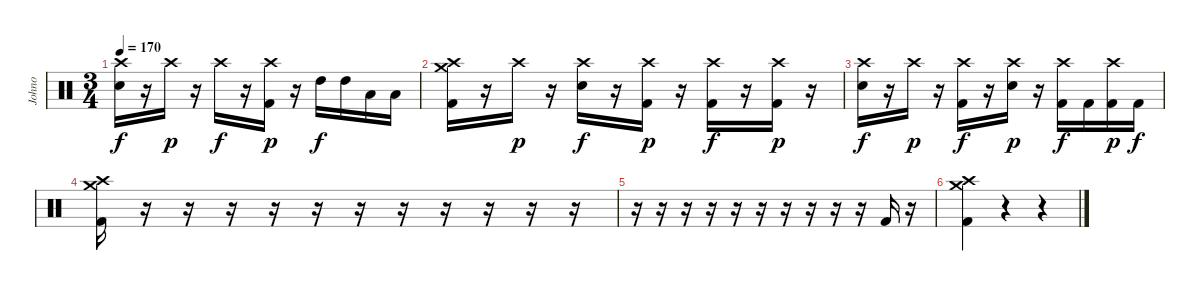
\track ("Johno" "Johno") {instrument percussion}
\staff {score}
\articulation defaults
\ts (3 4)
\tempo 170
\clef neutral
\ks c
("Crash high (hit)" "Electric Snare (hit)").16{dy f} r.16 "Crash high (hit)".16{dy p} r.16 "Crash high (hit)".16{dy f} r.16 ("Crash high (hit)" "Kick (hit) 2").16{dy p} r.16 "High Tom (hit)".16{dy f} "High Tom (hit)".16 "Low Floor Tom (hit)".16 "Low Floor Tom (hit)".16 |
("Crash medium (hit)" "Crash high (hit)" "Kick (hit) 2").16 r.16 "Crash high (hit)".16{dy p} r.16 ("Crash high (hit)" "Electric Snare (hit)").16{dy f} r.16 ("Crash high (hit)" "Kick (hit) 2").16{dy p} r.16 ("Crash high (hit)" "Kick (hit) 2").16{dy f} r.16 ("Crash high (hit)" "Kick (hit) 2").16{dy p} r.16 |
("Crash high (hit)" "Electric Snare (hit)").16{dy f} r.16 "Crash high (hit)".16{dy p} r.16 ("Crash high (hit)" "Kick (hit) 2").16{dy f} r.16 ("Crash high (hit)" "Electric Snare (hit)").16{dy p} r.16 ("Crash high (hit)" "Kick (hit) 2").16{dy f} "Kick (hit) 2".16 ("Crash high (hit)" "Kick (hit) 2").16{dy p} "Kick (hit) 2".16{dy f} |
("Crash medium (hit)" "Crash high (hit)" "Kick (hit) 2").16 r.16 r.16 r.16 r.16 r.16 r.16 r.16 r.16 r.16 r.16 r.16 |
r.16 r.16 r.16 r.16 r.16 r.16 r.16 r.16 r.16 r.16 "Kick (hit) 2".16 r.16 |
("Crash medium (hit)" "Crash high (hit)" "Kick (hit) 2").4 r.4 r.4
